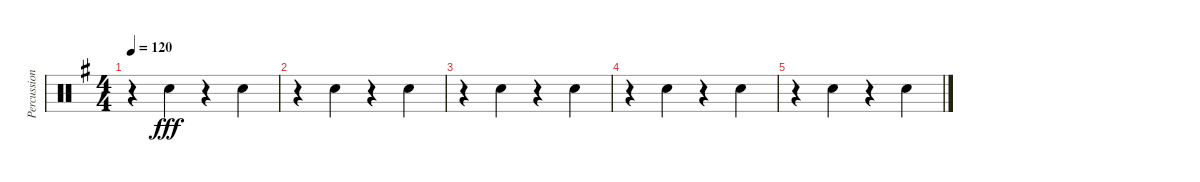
\track ("Percussion" "Percussion") {instrument percussion}
\staff {score}
\articulation defaults
\ts (4 4)
\tempo 120
\clef neutral
\ks g
r.4{dy fff} "Hand Clap (hit)".4 r.4 "Hand Clap (hit)".4 |
r.4 "Hand Clap (hit)".4 r.4 "Hand Clap (hit)".4 |
r.4{volume 4} "Hand Clap (hit)".4 r.4 "Hand Clap (hit)".4 |
r.4 "Hand Clap (hit)".4 r.4 "Hand Clap (hit)".4 |
r.4 "Hand Clap (hit)".4 r.4 "Hand Clap (hit)".4
